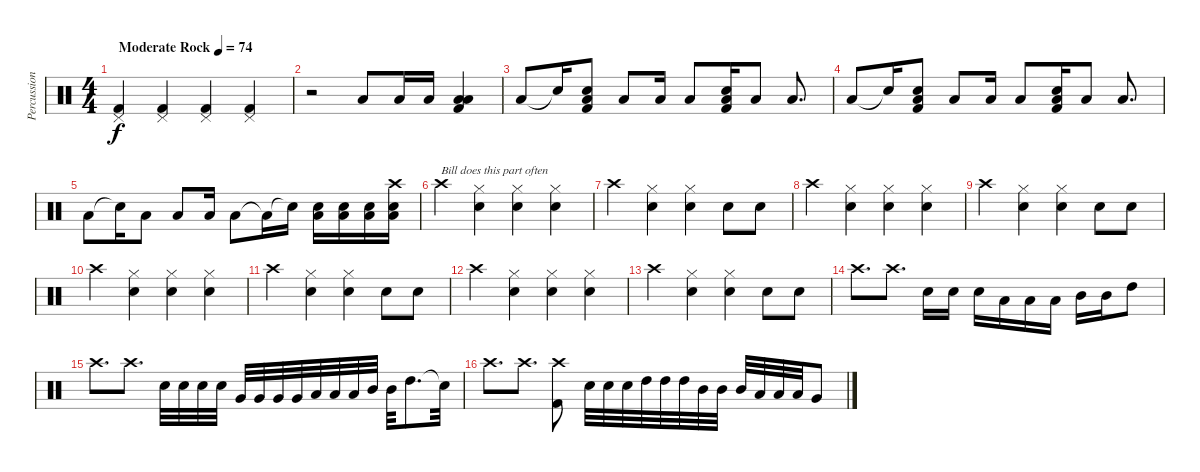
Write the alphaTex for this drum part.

\track ("Percussion" "Percussion") {instrument percussion}
\staff {score}
\articulation defaults
\ts (4 4)
\tempo (74 "Moderate Rock")
\clef neutral
\ks c
("Pedal Hi-Hat (hit)" "Kick (hit) 2").4{dy f} ("Pedal Hi-Hat (hit)" "Kick (hit) 2").4 ("Pedal Hi-Hat (hit)" "Kick (hit) 2").4 ("Pedal Hi-Hat (hit)" "Kick (hit) 2").4 |
r.2{volume 11} "Low Tom (hit)".8 "Low Tom (hit)".16 "Low Tom (hit)".16 ("Low Tom (hit)" "Low Floor Tom (hit)" "Kick (hit) 2").4 |
"Low Tom (hit)".8 "Snare (hit) 2"{t}.16 ("Snare (hit) 2" "Low Tom (hit)" "Kick (hit) 2").8 "Low Tom (hit)".8 "Low Tom (hit)".16 "Low Tom (hit)".8 ("Snare (hit) 2" "Low Tom (hit)" "Kick (hit) 2").16 "Low Tom (hit)".8 "Low Tom (hit)".8{d} |
"Low Tom (hit)".8 "Snare (hit) 2"{t}.16 ("Snare (hit) 2" "Low Tom (hit)" "Kick (hit) 2").8 "Low Tom (hit)".8 "Low Tom (hit)".16 "Low Tom (hit)".8 ("Snare (hit) 2" "Low Tom (hit)" "Kick (hit) 2").16 "Low Tom (hit)".8 "Low Tom (hit)".8{d} |
"Low Tom (hit)".8 "Snare (hit) 2"{t}.16 "Low Tom (hit)".8 "Low Tom (hit)".8 "Low Tom (hit)".16 "Low Tom (hit)".8 "Low Tom (hit)"{t}.16 "Snare (hit) 2"{t}.16 ("Snare (hit) 2" "Low Tom (hit)").16{volume 13} ("Snare (hit) 2" "Low Tom (hit)").16 ("Snare (hit) 2" "Low Tom (hit)").16 ("Crash high (hit)" "Snare (hit) 2" "Low Tom (hit)").16 |
"Crash high (hit)".4{txt "Bill does this part often"} ("Snare (hit) 2" "Hi-Hat (closed)").4 ("Snare (hit) 2" "Hi-Hat (closed)").4 ("Snare (hit) 2" "Hi-Hat (closed)").4 |
"Crash high (hit)".4 ("Snare (hit) 2" "Hi-Hat (closed)").4 ("Snare (hit) 2" "Hi-Hat (closed)").4 "Snare (hit) 2".8 "Snare (hit) 2".8 |
"Crash high (hit)".4 ("Snare (hit) 2" "Hi-Hat (closed)").4 ("Snare (hit) 2" "Hi-Hat (closed)").4 ("Snare (hit) 2" "Hi-Hat (closed)").4 |
"Crash high (hit)".4 ("Snare (hit) 2" "Hi-Hat (closed)").4 ("Snare (hit) 2" "Hi-Hat (closed)").4 "Snare (hit) 2".8 "Snare (hit) 2".8 |
"Crash high (hit)".4 ("Snare (hit) 2" "Hi-Hat (closed)").4 ("Snare (hit) 2" "Hi-Hat (closed)").4 ("Snare (hit) 2" "Hi-Hat (closed)").4 |
"Crash high (hit)".4 ("Snare (hit) 2" "Hi-Hat (closed)").4 ("Snare (hit) 2" "Hi-Hat (closed)").4 "Snare (hit) 2".8 "Snare (hit) 2".8 |
"Crash high (hit)".4 ("Snare (hit) 2" "Hi-Hat (closed)").4 ("Snare (hit) 2" "Hi-Hat (closed)").4 ("Snare (hit) 2" "Hi-Hat (closed)").4 |
"Crash high (hit)".4 ("Snare (hit) 2" "Hi-Hat (closed)").4 ("Snare (hit) 2" "Hi-Hat (closed)").4 "Snare (hit) 2".8 "Snare (hit) 2".8 |
"Crash high (hit)".8{d} "Crash high (hit)".8{d} "Snare (hit) 2".16 "Snare (hit) 2".16 "Snare (hit) 2".16 "Low Tom (hit)".16 "Low Tom (hit)".16 "Low Tom (hit)".16 "Mid Tom (hit)".16 "Mid Tom (hit)".16 "High Tom (hit)".8 |
"Crash high (hit)".8{d} "Crash high (hit)".8{d} "Snare (hit) 2".32 "Snare (hit) 2".32 "Snare (hit) 2".32 "Snare (hit) 2".32 "Very Low Tom (hit)".32 "Very Low Tom (hit)".32 "Very Low Tom (hit)".32 "Very Low Tom (hit)".32 "Low Tom (hit)".32 "Low Tom (hit)".32 "Low Tom (hit)".32 "Mid Tom (hit)".32 "Mid Tom (hit)".32 "High Tom (hit)".8{d} "Snare (hit)"{t}.32 |
"Crash high (hit)".8{d} "Crash high (hit)".8{d} ("Crash high (hit)" "Kick (hit) 2").8 "Snare (hit) 2".32 "Snare (hit) 2".32 "Snare (hit) 2".32 "High Tom (hit)".32 "High Tom (hit)".32 "High Tom (hit)".32 "Mid Tom (hit)".32 "Mid Tom (hit)".32 "Mid Tom (hit)".32 "Low Tom (hit)".32 "Low Tom (hit)".32 "Low Tom (hit)".32 "Very Low Tom (hit)".8
